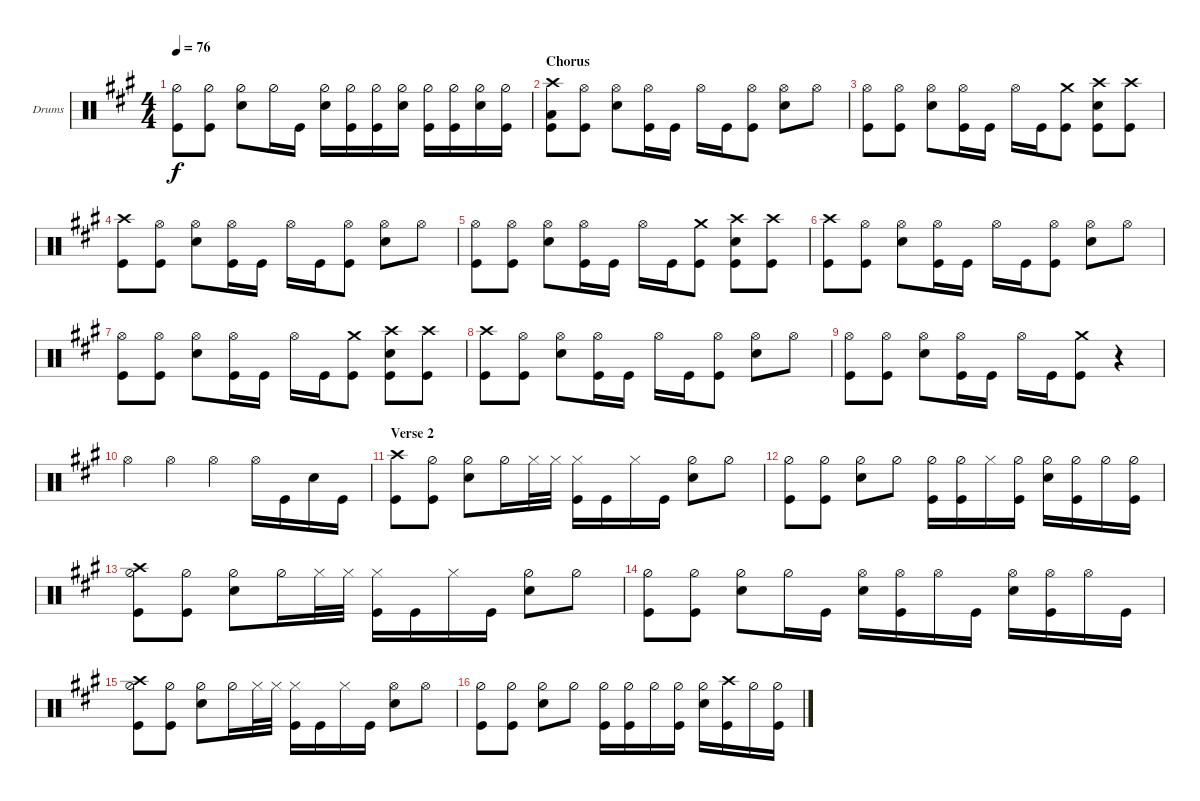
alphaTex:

\defaultSystemsLayout 4
\bracketExtendMode groupsimilarinstruments
\firstSystemTrackNameOrientation horizontal
\otherSystemsTrackNameOrientation horizontal
\track ("Drums" "Drums") {instrument percussion}
\staff {score}
\articulation defaults
\ts (4 4)
\tempo 76
\clef neutral
\ks f#minor
("Kick (hit)" "Hi-Hat (half)").8{dy f} ("Kick (hit)" "Hi-Hat (half)").8 ("Snare (hit) 2" "Hi-Hat (half)").8 "Hi-Hat (half)".16 "Kick (hit)".16 ("Hi-Hat (half)" "Snare (hit) 2").16 ("Kick (hit)" "Hi-Hat (half)").16 ("Hi-Hat (half)" "Kick (hit)").16 ("Snare (hit) 2" "Hi-Hat (half)").16 ("Hi-Hat (half)" "Kick (hit)").16 ("Kick (hit)" "Hi-Hat (half)").16 ("Snare (hit) 2" "Hi-Hat (half)").16 ("Kick (hit)" "Hi-Hat (half)").16 |
\section ("" "Chorus")
("Kick (hit)" "Crash high (hit)" "Low Tom (hit)").8 ("Hi-Hat (open)" "Kick (hit)").8 ("Hi-Hat (open)" "Snare (hit) 2").8 ("Hi-Hat (open)" "Kick (hit)").16 "Kick (hit)".16 "Hi-Hat (open)".16 "Kick (hit)".16 ("Hi-Hat (open)" "Kick (hit)").8 ("Hi-Hat (open)" "Snare (hit) 2").8 "Hi-Hat (open)".8 |
("Kick (hit)" "Hi-Hat (open)").8 ("Kick (hit)" "Hi-Hat (open)").8 ("Hi-Hat (open)" "Snare (hit) 2").8 ("Hi-Hat (open)" "Kick (hit)").16 "Kick (hit)".16 "Hi-Hat (open)".16 "Kick (hit)".16 ("Crash medium (hit)" "Kick (hit)").8 ("Crash high (hit)" "Kick (hit)" "Snare (hit) 2").8 ("Crash high (hit)" "Kick (hit)").8 |
("Kick (hit)" "Crash high (hit)").8 ("Hi-Hat (open)" "Kick (hit)").8 ("Hi-Hat (open)" "Snare (hit) 2").8 ("Hi-Hat (open)" "Kick (hit)").16 "Kick (hit)".16 "Hi-Hat (open)".16 "Kick (hit)".16 ("Hi-Hat (open)" "Kick (hit)").8 ("Hi-Hat (open)" "Snare (hit) 2").8 "Hi-Hat (open)".8 |
("Kick (hit)" "Hi-Hat (open)").8 ("Kick (hit)" "Hi-Hat (open)").8 ("Hi-Hat (open)" "Snare (hit) 2").8 ("Hi-Hat (open)" "Kick (hit)").16 "Kick (hit)".16 "Hi-Hat (open)".16 "Kick (hit)".16 ("Crash medium (hit)" "Kick (hit)").8 ("Crash high (hit)" "Kick (hit)" "Snare (hit) 2").8 ("Crash high (hit)" "Kick (hit)").8 |
("Kick (hit)" "Crash high (hit)").8 ("Hi-Hat (open)" "Kick (hit)").8 ("Hi-Hat (open)" "Snare (hit) 2").8 ("Hi-Hat (open)" "Kick (hit)").16 "Kick (hit)".16 "Hi-Hat (open)".16 "Kick (hit)".16 ("Hi-Hat (open)" "Kick (hit)").8 ("Hi-Hat (open)" "Snare (hit) 2").8 "Hi-Hat (open)".8 |
("Kick (hit)" "Hi-Hat (open)").8 ("Kick (hit)" "Hi-Hat (open)").8 ("Hi-Hat (open)" "Snare (hit) 2").8 ("Hi-Hat (open)" "Kick (hit)").16 "Kick (hit)".16 "Hi-Hat (open)".16 "Kick (hit)".16 ("Crash medium (hit)" "Kick (hit)").8 ("Crash high (hit)" "Kick (hit)" "Snare (hit) 2").8 ("Crash high (hit)" "Kick (hit)").8 |
("Kick (hit)" "Crash high (hit)").8 ("Hi-Hat (open)" "Kick (hit)").8 ("Hi-Hat (open)" "Snare (hit) 2").8 ("Hi-Hat (open)" "Kick (hit)").16 "Kick (hit)".16 "Hi-Hat (open)".16 "Kick (hit)".16 ("Hi-Hat (open)" "Kick (hit)").8 ("Hi-Hat (open)" "Snare (hit) 2").8 "Hi-Hat (open)".8 |
("Kick (hit)" "Hi-Hat (open)").8 ("Kick (hit)" "Hi-Hat (open)").8 ("Hi-Hat (open)" "Snare (hit) 2").8 ("Hi-Hat (open)" "Kick (hit)").16 "Kick (hit)".16 "Hi-Hat (open)".16 "Kick (hit)".16 ("Crash medium (hit)" "Kick (hit)").8 r.4 |
"Hi-Hat (open)".4 "Hi-Hat (open)".4 "Hi-Hat (open)".4 "Hi-Hat (open)".16 "Kick (hit)".16 "Snare (hit) 2".16 "Kick (hit)".16 |
\section ("" "Verse 2")
("Kick (hit)" "Crash high (hit)").8 ("Kick (hit)" "Hi-Hat (half)").8 ("Hi-Hat (half)" "Snare (hit) 2").8 "Hi-Hat (half)".16 "Hi-Hat (closed)".32 "Hi-Hat (closed)".32 ("Hi-Hat (closed)" "Kick (hit)").16 "Kick (hit)".16 "Hi-Hat (closed)".16 "Kick (hit)".16 ("Hi-Hat (half)" "Snare (hit) 2").8 "Hi-Hat (half)".8 |
("Kick (hit)" "Hi-Hat (half)").8 ("Kick (hit)" "Hi-Hat (half)").8 ("Snare (hit) 2" "Hi-Hat (half)").8 "Hi-Hat (half)".8 ("Hi-Hat (half)" "Kick (hit)").16 ("Kick (hit)" "Hi-Hat (half)").16 "Hi-Hat (closed)".16 ("Kick (hit)" "Hi-Hat (half)").16 ("Hi-Hat (half)" "Snare (hit) 2").16 ("Kick (hit)" "Hi-Hat (half)").16 "Hi-Hat (half)".16 ("Kick (hit)" "Hi-Hat (half)").16 |
("Kick (hit)" "Crash high (hit)" "Hi-Hat (half)").8 ("Kick (hit)" "Hi-Hat (half)").8 ("Hi-Hat (half)" "Snare (hit) 2").8 "Hi-Hat (half)".16 "Hi-Hat (closed)".32 "Hi-Hat (closed)".32 ("Hi-Hat (closed)" "Kick (hit)").16 "Kick (hit)".16 "Hi-Hat (closed)".16 "Kick (hit)".16 ("Hi-Hat (half)" "Snare (hit) 2").8 "Hi-Hat (half)".8 |
("Kick (hit)" "Hi-Hat (half)").8 ("Kick (hit)" "Hi-Hat (half)").8 ("Hi-Hat (half)" "Snare (hit) 2").8 "Hi-Hat (half)".16 "Kick (hit)".16 ("Hi-Hat (open)" "Snare (hit) 2").16 ("Kick (hit)" "Hi-Hat (open)").16 "Hi-Hat (open)".16 "Kick (hit)".16 ("Hi-Hat (open)" "Snare (hit) 2").16 ("Kick (hit)" "Hi-Hat (open)").16 "Hi-Hat (open)".16 "Kick (hit)".16 |
("Kick (hit)" "Crash high (hit)" "Hi-Hat (half)").8 ("Kick (hit)" "Hi-Hat (half)").8 ("Hi-Hat (half)" "Snare (hit) 2").8 "Hi-Hat (half)".16 "Hi-Hat (closed)".32 "Hi-Hat (closed)".32 ("Hi-Hat (closed)" "Kick (hit)").16 "Kick (hit)".16 "Hi-Hat (closed)".16 "Kick (hit)".16 ("Hi-Hat (open)" "Snare (hit) 2").8 "Hi-Hat (open)".8 |
("Kick (hit)" "Hi-Hat (half)").8 ("Kick (hit)" "Hi-Hat (half)").8 ("Snare (hit) 2" "Hi-Hat (half)").8 "Hi-Hat (half)".8 ("Hi-Hat (half)" "Kick (hit)").16 ("Kick (hit)" "Hi-Hat (half)").16 "Hi-Hat (half)".16 ("Kick (hit)" "Hi-Hat (half)").16 ("Hi-Hat (half)" "Snare (hit) 2").16 ("Kick (hit)" "Crash high (hit)").16 "Hi-Hat (half)".16 ("Kick (hit)" "Hi-Hat (half)").16
